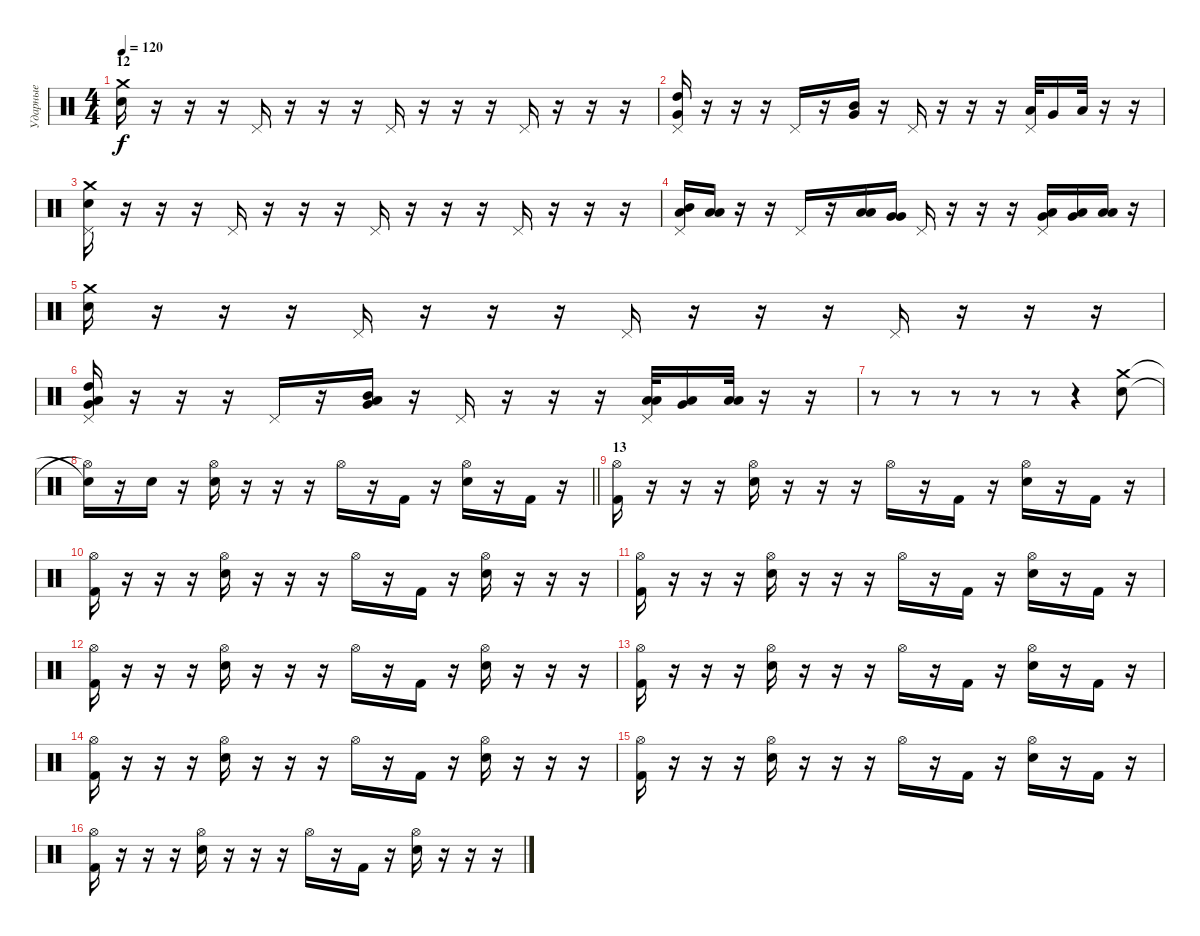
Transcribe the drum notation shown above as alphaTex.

\track ("Ударные" "Ударные") {instrument percussion}
\staff {score}
\articulation defaults
\ts (4 4)
\section ("" "12")
\tempo 120
\clef neutral
\ks c
("Crash medium (hit)" "Snare (hit) 2").16{dy f} r.16 r.16 r.16 "Pedal Hi-Hat (hit)".16 r.16 r.16 r.16 "Pedal Hi-Hat (hit)".16 r.16 r.16 r.16 "Pedal Hi-Hat (hit)".16 r.16 r.16 r.16 |
("Pedal Hi-Hat (hit)" "High Tom (hit)" "Very Low Tom (hit)").16 r.16 r.16 r.16 "Pedal Hi-Hat (hit)".16 r.16 ("Very Low Tom (hit)" "Mid Tom (hit)").16 r.16 "Pedal Hi-Hat (hit)".16 r.16 r.16 r.16 ("Pedal Hi-Hat (hit)" "Low Tom (hit)").32 "Very Low Tom (hit)".16 "Low Floor Tom (hit)".32 r.16 r.16 |
("Pedal Hi-Hat (hit)" "Crash medium (hit)" "Snare (hit) 2").16 r.16 r.16 r.16 "Pedal Hi-Hat (hit)".16 r.16 r.16 r.16 "Pedal Hi-Hat (hit)".16 r.16 r.16 r.16 "Pedal Hi-Hat (hit)".16 r.16 r.16 r.16 |
("Pedal Hi-Hat (hit)" "Mid Tom (hit)" "Low Floor Tom (hit)").16 ("Low Tom (hit)" "Low Floor Tom (hit)").16 r.16 r.16 "Pedal Hi-Hat (hit)".16 r.16 ("Low Tom (hit)" "Low Tom (hit)").16 ("Very Low Tom (hit)" "Very Low Tom (hit)").16 "Pedal Hi-Hat (hit)".16 r.16 r.16 r.16 ("Pedal Hi-Hat (hit)" "Low Tom (hit)" "Very Low Tom (hit)").16 ("Very Low Tom (hit)" "Low Floor Tom (hit)").16 ("Low Floor Tom (hit)" "Low Floor Tom (hit)").16 r.16 |
("Crash medium (hit)" "Snare (hit) 2").16 r.16 r.16 r.16 "Pedal Hi-Hat (hit)".16 r.16 r.16 r.16 "Pedal Hi-Hat (hit)".16 r.16 r.16 r.16 "Pedal Hi-Hat (hit)".16 r.16 r.16 r.16 |
("Pedal Hi-Hat (hit)" "High Tom (hit)" "Very Low Tom (hit)" "Low Floor Tom (hit)").16 r.16 r.16 r.16 "Pedal Hi-Hat (hit)".16 r.16 ("Very Low Tom (hit)" "Mid Tom (hit)" "Low Floor Tom (hit)").16 r.16 "Pedal Hi-Hat (hit)".16 r.16 r.16 r.16 ("Pedal Hi-Hat (hit)" "Low Tom (hit)" "Low Floor Tom (hit)").32 ("Very Low Tom (hit)" "Low Floor Tom (hit)").16 ("Low Floor Tom (hit)" "Low Floor Tom (hit)").32 r.16 r.16 |
r.8 r.8 r.8 r.8 r.8 r.4 ("Snare (hit) 2" "Crash medium (hit)").8 |
\barLineRight lightlight
("Hi-Hat (open)"{t} "Snare (hit)"{t}).16 r.16 "Snare (hit) 2".16 r.16 ("Hi-Hat (open)" "Snare (hit) 2").16 r.16 r.16 r.16 "Hi-Hat (open)".16 r.16 "Kick (hit) 2".16 r.16 ("Hi-Hat (open)" "Snare (hit) 2").16 r.16 "Kick (hit) 2".16 r.16 |
\section ("" "13")
("Hi-Hat (open)" "Kick (hit) 2").16 r.16 r.16 r.16 ("Hi-Hat (open)" "Snare (hit) 2").16 r.16 r.16 r.16 "Hi-Hat (open)".16 r.16 "Kick (hit) 2".16 r.16 ("Hi-Hat (open)" "Snare (hit) 2").16 r.16 "Kick (hit) 2".16 r.16 |
("Hi-Hat (open)" "Kick (hit) 2").16 r.16 r.16 r.16 ("Hi-Hat (open)" "Snare (hit) 2").16 r.16 r.16 r.16 "Hi-Hat (open)".16 r.16 "Kick (hit) 2".16 r.16 ("Hi-Hat (open)" "Snare (hit) 2").16 r.16 r.16 r.16 |
("Hi-Hat (open)" "Kick (hit) 2").16 r.16 r.16 r.16 ("Hi-Hat (open)" "Snare (hit) 2").16 r.16 r.16 r.16 "Hi-Hat (open)".16 r.16 "Kick (hit) 2".16 r.16 ("Hi-Hat (open)" "Snare (hit) 2").16 r.16 "Kick (hit) 2".16 r.16 |
("Hi-Hat (open)" "Kick (hit) 2").16 r.16 r.16 r.16 ("Hi-Hat (open)" "Snare (hit) 2").16 r.16 r.16 r.16 "Hi-Hat (open)".16 r.16 "Kick (hit) 2".16 r.16 ("Hi-Hat (open)" "Snare (hit) 2").16 r.16 r.16 r.16 |
("Hi-Hat (open)" "Kick (hit) 2").16 r.16 r.16 r.16 ("Hi-Hat (open)" "Snare (hit) 2").16 r.16 r.16 r.16 "Hi-Hat (open)".16 r.16 "Kick (hit) 2".16 r.16 ("Hi-Hat (open)" "Snare (hit) 2").16 r.16 "Kick (hit) 2".16 r.16 |
("Hi-Hat (open)" "Kick (hit) 2").16 r.16 r.16 r.16 ("Hi-Hat (open)" "Snare (hit) 2").16 r.16 r.16 r.16 "Hi-Hat (open)".16 r.16 "Kick (hit) 2".16 r.16 ("Hi-Hat (open)" "Snare (hit) 2").16 r.16 r.16 r.16 |
("Hi-Hat (open)" "Kick (hit) 2").16 r.16 r.16 r.16 ("Hi-Hat (open)" "Snare (hit) 2").16 r.16 r.16 r.16 "Hi-Hat (open)".16 r.16 "Kick (hit) 2".16 r.16 ("Hi-Hat (open)" "Snare (hit) 2").16 r.16 "Kick (hit) 2".16 r.16 |
("Hi-Hat (open)" "Kick (hit) 2").16 r.16 r.16 r.16 ("Hi-Hat (open)" "Snare (hit) 2").16 r.16 r.16 r.16 "Hi-Hat (open)".16 r.16 "Kick (hit) 2".16 r.16 ("Hi-Hat (open)" "Snare (hit) 2").16 r.16 r.16 r.16
